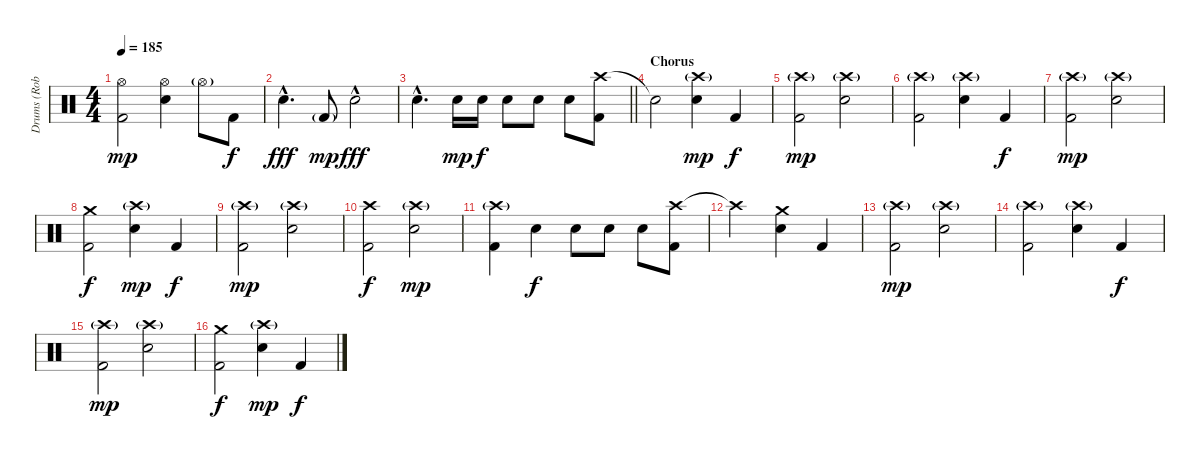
\track ("Drums (Robert Ortiz)" "Drums (Rob") {instrument percussion}
\staff {score}
\articulation defaults
\ts (4 4)
\tempo 185
\clef neutral
\ks c
("Hi-Hat (open)" "Kick (hit) 2").2{dy mp} ("Hi-Hat (open)" "Electric Snare (hit)").4 "Hi-Hat (open)"{g}.8 "Kick (hit) 2".8{dy f} |
"Electric Snare (hit)"{hac}.4{d dy fff} "Kick (hit) 2"{g}.8{dy mp} "Electric Snare (hit)"{hac}.2{dy fff} |
\barLineRight lightlight "Electric Snare (hit)"{hac}.4{d} "Electric Snare (hit)".16{dy mp} "Electric Snare (hit)".16{dy f} "Electric Snare (hit)".8 "Electric Snare (hit)".8 "Electric Snare (hit)".8
("Crash high (hit)" "Kick (hit) 2").8 |
\section ("" "Chorus")
"Snare (hit)"{t}.2 ("Crash high (hit)"{g} "Electric Snare (hit)").4{dy mp} "Kick (hit) 2".4{dy f} |
("Crash high (hit)"{g} "Kick (hit) 2").2{dy mp} ("Crash high (hit)"{g} "Electric Snare (hit)").2 |
("Crash high (hit)"{g} "Kick (hit) 2").2 ("Crash high (hit)"{g} "Electric Snare (hit)").4 "Kick (hit) 2".4{dy f} |
("Crash high (hit)"{g} "Kick (hit) 2").2{dy mp} ("Crash high (hit)"{g} "Electric Snare (hit)").2 |
("Crash medium (hit)" "Kick (hit) 2").2{dy f} ("Crash high (hit)"{g} "Electric Snare (hit)").4{dy mp} "Kick (hit) 2".4{dy f} |
("Crash high (hit)"{g} "Kick (hit) 2").2{dy mp} ("Crash high (hit)"{g} "Electric Snare (hit)").2 |
("Crash high (hit)" "Kick (hit) 2").2{dy f} ("Crash high (hit)"{g} "Electric Snare (hit)").2{dy mp} |
("Crash high (hit)"{g} "Kick (hit) 2").4 "Electric Snare (hit)".4{dy f} "Electric Snare (hit)".8 "Electric Snare (hit)".8 "Electric Snare (hit)".8 ("Crash high (hit)" "Kick (hit) 2").8 |
"Crash high (hit)"{t}.2 ("Crash medium (hit)" "Electric Snare (hit)").4 "Kick (hit) 2".4 |
("Crash high (hit)"{g} "Kick (hit) 2").2{dy mp} ("Crash high (hit)"{g} "Electric Snare (hit)").2 |
("Crash high (hit)"{g} "Kick (hit) 2").2 ("Crash high (hit)"{g} "Electric Snare (hit)").4 "Kick (hit) 2".4{dy f} |
("Crash high (hit)"{g} "Kick (hit) 2").2{dy mp} ("Crash high (hit)"{g} "Electric Snare (hit)").2 |
("Crash medium (hit)" "Kick (hit) 2").2{dy f} ("Crash high (hit)"{g} "Electric Snare (hit)").4{dy mp} "Kick (hit) 2".4{dy f}
